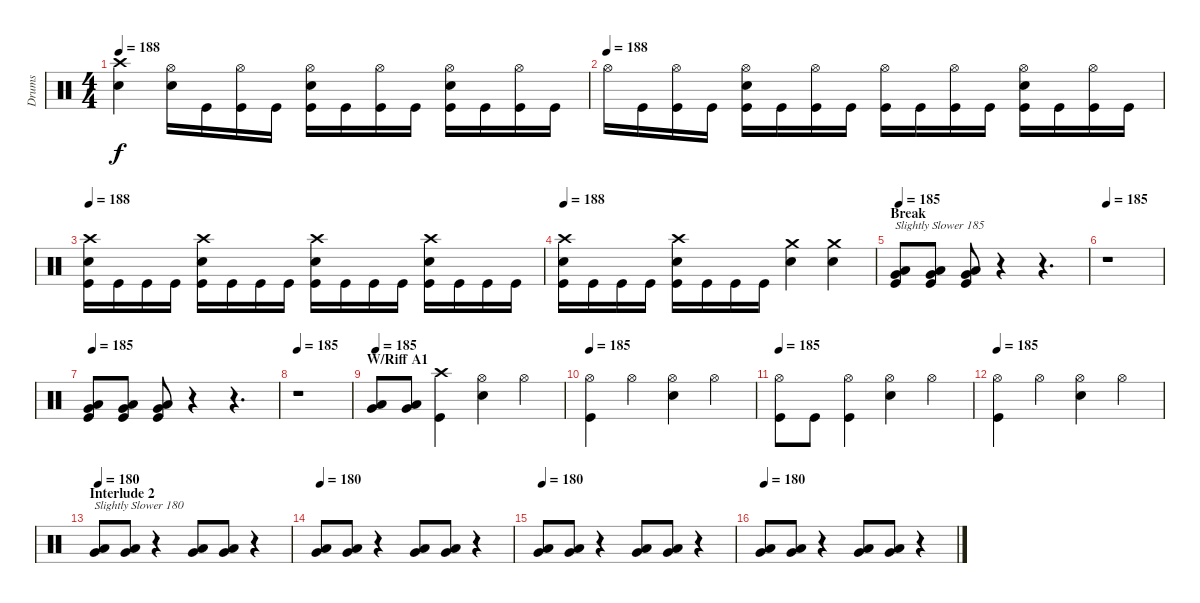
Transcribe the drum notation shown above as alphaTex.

\track ("Drums" "Drums") {instrument percussion}
\staff {score}
\articulation defaults
\ts (4 4)
\tempo 188
\clef neutral
\ks c
("Crash high (hit)" "Snare (hit) 2").4{dy f} ("Hi-Hat (open)" "Snare (hit) 2").16 "Kick (hit)".16 ("Hi-Hat (open)" "Kick (hit)").16 "Kick (hit)".16 ("Hi-Hat (open)" "Snare (hit) 2" "Kick (hit)").16 "Kick (hit)".16 ("Hi-Hat (open)" "Kick (hit)").16 "Kick (hit)".16 ("Hi-Hat (open)" "Snare (hit) 2" "Kick (hit)").16 "Kick (hit)".16 ("Hi-Hat (open)" "Kick (hit)").16 "Kick (hit)".16 |
\tempo (188)
"Hi-Hat (open)".16 "Kick (hit)".16 ("Hi-Hat (open)" "Kick (hit)").16 "Kick (hit)".16 ("Hi-Hat (open)" "Snare (hit) 2" "Kick (hit)").16 "Kick (hit)".16 ("Hi-Hat (open)" "Kick (hit)").16 "Kick (hit)".16 ("Hi-Hat (open)" "Kick (hit)").16 "Kick (hit)".16 ("Hi-Hat (open)" "Kick (hit)").16 "Kick (hit)".16 ("Hi-Hat (open)" "Snare (hit) 2" "Kick (hit)").16 "Kick (hit)".16 ("Hi-Hat (open)" "Kick (hit)").16 "Kick (hit)".16 |
\tempo 188
("Crash high (hit)" "Snare (hit) 2" "Kick (hit)").16 "Kick (hit)".16 "Kick (hit)".16 "Kick (hit)".16 ("Crash high (hit)" "Snare (hit) 2" "Kick (hit)").16 "Kick (hit)".16 "Kick (hit)".16 "Kick (hit)".16 ("Crash high (hit)" "Snare (hit) 2" "Kick (hit)").16 "Kick (hit)".16 "Kick (hit)".16 "Kick (hit)".16 ("Crash high (hit)" "Snare (hit) 2" "Kick (hit)").16 "Kick (hit)".16 "Kick (hit)".16 "Kick (hit)".16 |
\tempo 188
("Crash high (hit)" "Snare (hit) 2" "Kick (hit)").16 "Kick (hit)".16 "Kick (hit)".16 "Kick (hit)".16 ("Crash high (hit)" "Snare (hit) 2" "Kick (hit)").16 "Kick (hit)".16 "Kick (hit)".16 "Kick (hit)".16 ("Crash medium (hit)" "Snare (hit) 2").4 ("Crash medium (hit)" "Snare (hit) 2").4 |
\section ("" "Break")
\tempo 185
("Very Low Tom (hit)" "Low Floor Tom (hit)" "Kick (hit)").8{txt "Slightly Slower 185"} ("Very Low Tom (hit)" "Low Floor Tom (hit)" "Kick (hit)").8 ("Very Low Tom (hit)" "Low Floor Tom (hit)" "Kick (hit)").8 r.4 r.4{d} |
\tempo 185
r.1 |
\tempo 185
("Very Low Tom (hit)" "Low Floor Tom (hit)" "Kick (hit)").8 ("Very Low Tom (hit)" "Low Floor Tom (hit)" "Kick (hit)").8 ("Very Low Tom (hit)" "Low Floor Tom (hit)" "Kick (hit)").8 r.4 r.4{d} |
\tempo 185
r.1 |
\section ("" "W/Riff A1")
\tempo 185
("Very Low Tom (hit)" "Low Floor Tom (hit)").8 ("Very Low Tom (hit)" "Low Floor Tom (hit)").8 ("Crash high (hit)" "Kick (hit)").4 ("Hi-Hat (open)" "Snare (hit) 2").4 "Hi-Hat (open)".4 |
\tempo 185
("Hi-Hat (open)" "Kick (hit)").4 "Hi-Hat (open)".4 ("Hi-Hat (open)" "Snare (hit) 2").4 "Hi-Hat (open)".4 |
\tempo 185
("Hi-Hat (open)" "Kick (hit)").8 "Kick (hit)".8 ("Hi-Hat (open)" "Kick (hit)").4 ("Hi-Hat (open)" "Snare (hit) 2").4 "Hi-Hat (open)".4 |
\tempo 185
("Hi-Hat (open)" "Kick (hit)").4 "Hi-Hat (open)".4 ("Hi-Hat (open)" "Snare (hit) 2").4 "Hi-Hat (open)".4 |
\section ("" "Interlude 2")
\tempo 180
("Very Low Tom (hit)" "Low Floor Tom (hit)").8{txt "Slightly Slower 180"} ("Very Low Tom (hit)" "Low Floor Tom (hit)").8 r.4 ("Low Floor Tom (hit)" "Very Low Tom (hit)").8 ("Low Floor Tom (hit)" "Very Low Tom (hit)").8 r.4 |
\tempo 180
("Very Low Tom (hit)" "Low Floor Tom (hit)").8 ("Very Low Tom (hit)" "Low Floor Tom (hit)").8 r.4 ("Low Floor Tom (hit)" "Very Low Tom (hit)").8 ("Low Floor Tom (hit)" "Very Low Tom (hit)").8 r.4 |
\tempo 180
("Very Low Tom (hit)" "Low Floor Tom (hit)").8 ("Very Low Tom (hit)" "Low Floor Tom (hit)").8 r.4 ("Low Floor Tom (hit)" "Very Low Tom (hit)").8 ("Low Floor Tom (hit)" "Very Low Tom (hit)").8 r.4 |
\tempo 180
("Very Low Tom (hit)" "Low Floor Tom (hit)").8 ("Very Low Tom (hit)" "Low Floor Tom (hit)").8 r.4 ("Low Floor Tom (hit)" "Very Low Tom (hit)").8 ("Low Floor Tom (hit)" "Very Low Tom (hit)").8 r.4
